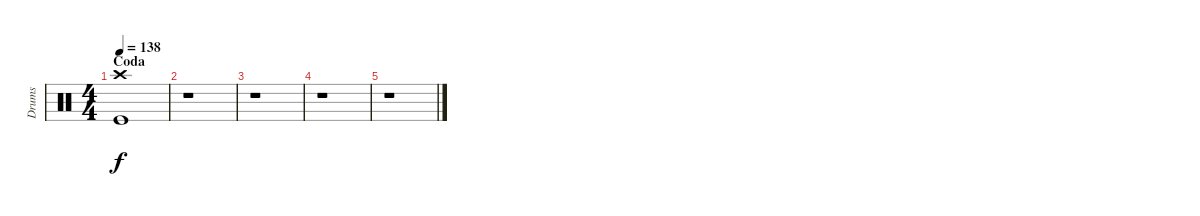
\track ("Drums" "Drums") {instrument percussion}
\staff {score}
\articulation defaults
\ts (4 4)
\section ("" "Coda")
\tempo 138
\clef neutral
\ks c
("Crash high (hit)" "Kick (hit)").1{dy f} |
r.1 |
r.1 |
r.1 |
r.1
